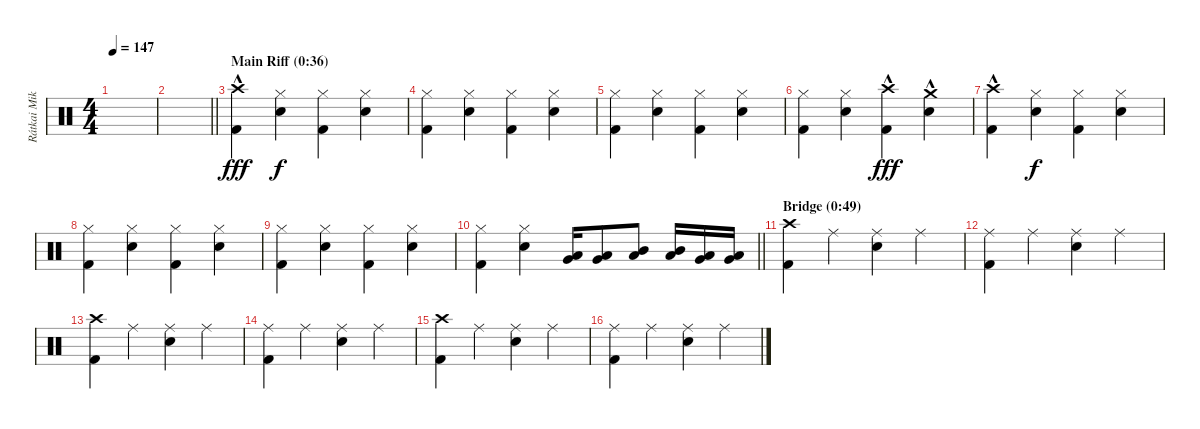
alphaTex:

\track ("Rátkai Miklós [Drums]" "Rátkai Mik") {instrument percussion}
\staff {score}
\articulation defaults
\ts (4 4)
\tempo 147
\clef neutral
\ks c
|
\barLineRight lightlight
|
\section ("" "Main Riff (0:36)")
("Crash high (hit)"{hac} "Kick (hit) 2").4{dy fff} ("Hi-Hat (closed)" "Electric Snare (hit)").4{dy f} ("Hi-Hat (closed)" "Kick (hit) 2").4 ("Hi-Hat (closed)" "Electric Snare (hit)").4 |
("Hi-Hat (closed)" "Kick (hit) 2").4 ("Hi-Hat (closed)" "Electric Snare (hit)").4 ("Hi-Hat (closed)" "Kick (hit) 2").4 ("Hi-Hat (closed)" "Electric Snare (hit)").4 |
("Hi-Hat (closed)" "Kick (hit) 2").4 ("Hi-Hat (closed)" "Electric Snare (hit)").4 ("Hi-Hat (closed)" "Kick (hit) 2").4 ("Hi-Hat (closed)" "Electric Snare (hit)").4 |
("Hi-Hat (closed)" "Kick (hit) 2").4 ("Hi-Hat (closed)" "Electric Snare (hit)").4 ("Crash high (hit)"{hac} "Kick (hit) 2").4{dy fff} ("Crash medium (hit)"{hac} "Electric Snare (hit)").4 |
("Crash high (hit)"{hac} "Kick (hit) 2").4 ("Hi-Hat (closed)" "Electric Snare (hit)").4{dy f} ("Hi-Hat (closed)" "Kick (hit) 2").4 ("Hi-Hat (closed)" "Electric Snare (hit)").4 |
("Hi-Hat (closed)" "Kick (hit) 2").4 ("Hi-Hat (closed)" "Electric Snare (hit)").4 ("Hi-Hat (closed)" "Kick (hit) 2").4 ("Hi-Hat (closed)" "Electric Snare (hit)").4 |
("Hi-Hat (closed)" "Kick (hit) 2").4 ("Hi-Hat (closed)" "Electric Snare (hit)").4 ("Hi-Hat (closed)" "Kick (hit) 2").4 ("Hi-Hat (closed)" "Electric Snare (hit)").4 |
\barLineRight lightlight
("Hi-Hat (closed)" "Kick (hit) 2").4 ("Hi-Hat (closed)" "Electric Snare (hit)").4 ("Very Low Tom (hit)" "Low Floor Tom (hit)").16 ("Low Tom (hit)" "Very Low Tom (hit)").8 ("Mid Tom (hit)" "Low Tom (hit)").8 ("Mid Tom (hit)" "Low Tom (hit)").16 ("Low Tom (hit)" "Very Low Tom (hit)").16 ("Very Low Tom (hit)" "Low Floor Tom (hit)").16 |
\section ("" "Bridge (0:49)")
("Crash high (hit)" "Kick (hit) 2").4 "Ride (middle)".4 ("Ride (middle)" "Electric Snare (hit)").4 "Ride (middle)".4 |
("Ride (middle)" "Kick (hit) 2").4 "Ride (middle)".4 ("Ride (middle)" "Electric Snare (hit)").4 "Ride (middle)".4 |
("Crash high (hit)" "Kick (hit) 2").4 "Ride (middle)".4 ("Ride (middle)" "Electric Snare (hit)").4 "Ride (middle)".4 |
("Ride (middle)" "Kick (hit) 2").4 "Ride (middle)".4 ("Ride (middle)" "Electric Snare (hit)").4 "Ride (middle)".4 |
("Crash high (hit)" "Kick (hit) 2").4 "Ride (middle)".4 ("Ride (middle)" "Electric Snare (hit)").4 "Ride (middle)".4 |
("Ride (middle)" "Kick (hit) 2").4 "Ride (middle)".4 ("Ride (middle)" "Electric Snare (hit)").4 "Ride (middle)".4
